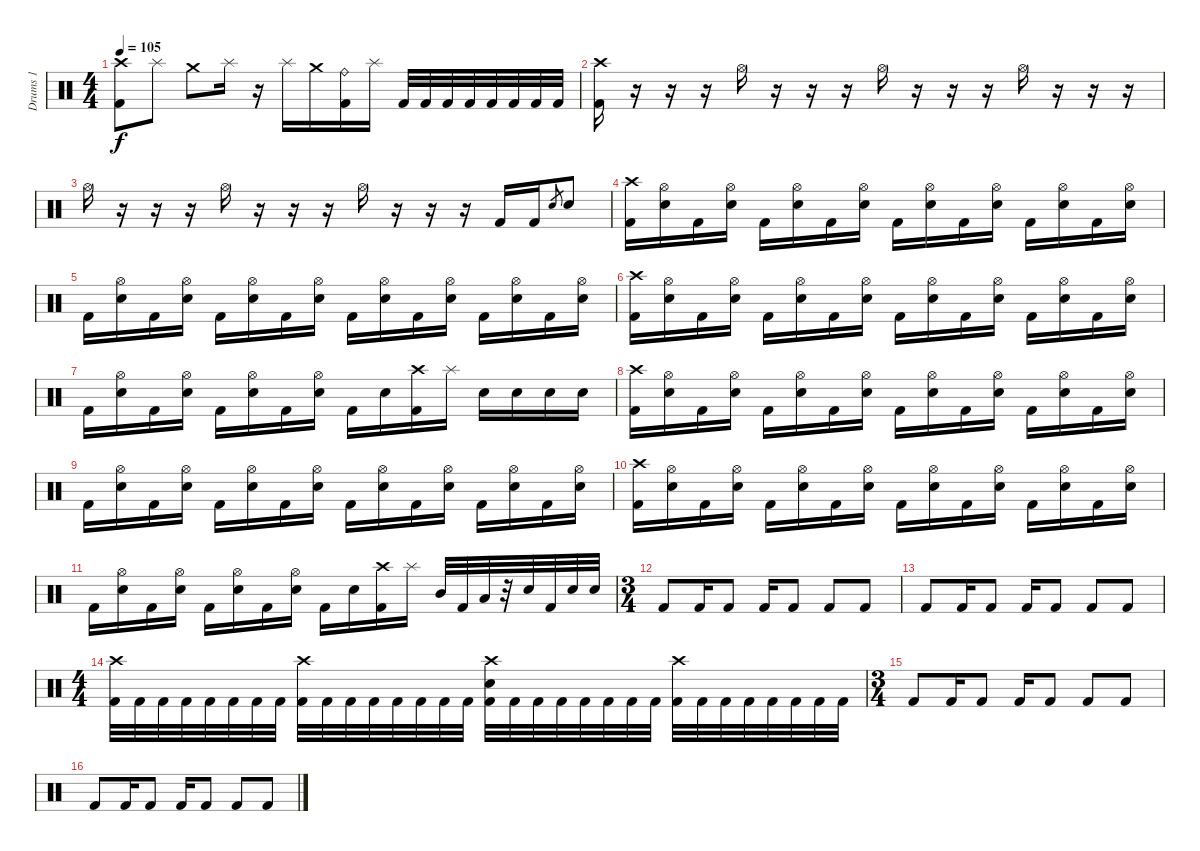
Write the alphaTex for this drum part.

\track ("Drums 1" "Drums 1") {instrument percussion}
\staff
\articulation defaults
\ts (4 4)
\tempo 105
\clef neutral
\ks c
("Crash high (hit)" "Kick (hit) 2").8{dy f} "Splash (hit)".8 "Crash medium (hit)".8 "Splash (hit)".16 r.16 "Splash (hit)".16 "Crash medium (hit)".16 ("Ride (bell)" "Kick (hit) 2").16 "Splash (hit)".16 "Kick (hit) 2".32 "Kick (hit) 2".32 "Kick (hit) 2".32 "Kick (hit) 2".32 "Kick (hit) 2".32 "Kick (hit) 2".32 "Kick (hit) 2".32 "Kick (hit) 2".32 |
("Crash high (hit)" "Kick (hit) 2").16 r.16 r.16 r.16 "Hi-Hat (open)".16 r.16 r.16 r.16 "Hi-Hat (open)".16 r.16 r.16 r.16 "Hi-Hat (open)".16 r.16 r.16 r.16 |
"Hi-Hat (open)".16 r.16 r.16 r.16 "Hi-Hat (open)".16 r.16 r.16 r.16 "Hi-Hat (open)".16 r.16 r.16 r.16 "Kick (hit) 2".16 "Kick (hit) 2".16 "Electric Snare (hit)".8{gr} "Electric Snare (hit)".8 |
("Crash high (hit)" "Kick (hit) 2").16 ("Hi-Hat (open)" "Electric Snare (hit)").16 "Kick (hit) 2".16 ("Hi-Hat (open)" "Electric Snare (hit)").16 "Kick (hit) 2".16 ("Hi-Hat (open)" "Electric Snare (hit)").16 "Kick (hit) 2".16 ("Hi-Hat (open)" "Electric Snare (hit)").16 "Kick (hit) 2".16 ("Hi-Hat (open)" "Electric Snare (hit)").16 "Kick (hit) 2".16 ("Hi-Hat (open)" "Electric Snare (hit)").16 "Kick (hit) 2".16 ("Hi-Hat (open)" "Electric Snare (hit)").16 "Kick (hit) 2".16 ("Hi-Hat (open)" "Electric Snare (hit)").16 |
"Kick (hit) 2".16 ("Hi-Hat (open)" "Electric Snare (hit)").16 "Kick (hit) 2".16 ("Hi-Hat (open)" "Electric Snare (hit)").16 "Kick (hit) 2".16 ("Hi-Hat (open)" "Electric Snare (hit)").16 "Kick (hit) 2".16 ("Hi-Hat (open)" "Electric Snare (hit)").16 "Kick (hit) 2".16 ("Hi-Hat (open)" "Electric Snare (hit)").16 "Kick (hit) 2".16 ("Hi-Hat (open)" "Electric Snare (hit)").16 "Kick (hit) 2".16 ("Hi-Hat (open)" "Electric Snare (hit)").16 "Kick (hit) 2".16 ("Hi-Hat (open)" "Electric Snare (hit)").16 |
("Crash high (hit)" "Kick (hit) 2").16 ("Hi-Hat (open)" "Electric Snare (hit)").16 "Kick (hit) 2".16 ("Hi-Hat (open)" "Electric Snare (hit)").16 "Kick (hit) 2".16 ("Hi-Hat (open)" "Electric Snare (hit)").16 "Kick (hit) 2".16 ("Hi-Hat (open)" "Electric Snare (hit)").16 "Kick (hit) 2".16 ("Hi-Hat (open)" "Electric Snare (hit)").16 "Kick (hit) 2".16 ("Hi-Hat (open)" "Electric Snare (hit)").16 "Kick (hit) 2".16 ("Hi-Hat (open)" "Electric Snare (hit)").16 "Kick (hit) 2".16 ("Hi-Hat (open)" "Electric Snare (hit)").16 |
"Kick (hit) 2".16 ("Hi-Hat (open)" "Electric Snare (hit)").16 "Kick (hit) 2".16 ("Hi-Hat (open)" "Electric Snare (hit)").16 "Kick (hit) 2".16 ("Hi-Hat (open)" "Electric Snare (hit)").16 "Kick (hit) 2".16 ("Hi-Hat (open)" "Electric Snare (hit)").16 "Kick (hit) 2".16 "Electric Snare (hit)".16 ("Crash high (hit)" "Kick (hit) 2").16 "Splash (hit)".16 "Electric Snare (hit)".16 "Electric Snare (hit)".16 "Electric Snare (hit)".16 "Electric Snare (hit)".16 |
("Crash high (hit)" "Kick (hit) 2").16 ("Hi-Hat (open)" "Electric Snare (hit)").16 "Kick (hit) 2".16 ("Hi-Hat (open)" "Electric Snare (hit)").16 "Kick (hit) 2".16 ("Hi-Hat (open)" "Electric Snare (hit)").16 "Kick (hit) 2".16 ("Hi-Hat (open)" "Electric Snare (hit)").16 "Kick (hit) 2".16 ("Hi-Hat (open)" "Electric Snare (hit)").16 "Kick (hit) 2".16 ("Hi-Hat (open)" "Electric Snare (hit)").16 "Kick (hit) 2".16 ("Hi-Hat (open)" "Electric Snare (hit)").16 "Kick (hit) 2".16 ("Hi-Hat (open)" "Electric Snare (hit)").16 |
"Kick (hit) 2".16 ("Hi-Hat (open)" "Electric Snare (hit)").16 "Kick (hit) 2".16 ("Hi-Hat (open)" "Electric Snare (hit)").16 "Kick (hit) 2".16 ("Hi-Hat (open)" "Electric Snare (hit)").16 "Kick (hit) 2".16 ("Hi-Hat (open)" "Electric Snare (hit)").16 "Kick (hit) 2".16 ("Hi-Hat (open)" "Electric Snare (hit)").16 "Kick (hit) 2".16 ("Hi-Hat (open)" "Electric Snare (hit)").16 "Kick (hit) 2".16 ("Hi-Hat (open)" "Electric Snare (hit)").16 "Kick (hit) 2".16 ("Hi-Hat (open)" "Electric Snare (hit)").16 |
("Crash high (hit)" "Kick (hit) 2").16 ("Hi-Hat (open)" "Electric Snare (hit)").16 "Kick (hit) 2".16 ("Hi-Hat (open)" "Electric Snare (hit)").16 "Kick (hit) 2".16 ("Hi-Hat (open)" "Electric Snare (hit)").16 "Kick (hit) 2".16 ("Hi-Hat (open)" "Electric Snare (hit)").16 "Kick (hit) 2".16 ("Hi-Hat (open)" "Electric Snare (hit)").16 "Kick (hit) 2".16 ("Hi-Hat (open)" "Electric Snare (hit)").16 "Kick (hit) 2".16 ("Hi-Hat (open)" "Electric Snare (hit)").16 "Kick (hit) 2".16 ("Hi-Hat (open)" "Electric Snare (hit)").16 |
"Kick (hit) 2".16 ("Hi-Hat (open)" "Electric Snare (hit)").16 "Kick (hit) 2".16 ("Hi-Hat (open)" "Electric Snare (hit)").16 "Kick (hit) 2".16 ("Hi-Hat (open)" "Electric Snare (hit)").16 "Kick (hit) 2".16 ("Hi-Hat (open)" "Electric Snare (hit)").16 "Kick (hit) 2".16 "Electric Snare (hit)".16 ("Crash high (hit)" "Kick (hit) 2").16 "Splash (hit)".16 "Mid Tom (hit)".32 "Kick (hit) 2".32 "Low Tom (hit)".32 r.32 "Electric Snare (hit)".32 "Kick (hit) 2".32 "Electric Snare (hit)".32 "Electric Snare (hit)".32 |
\ts (3 4)
"Kick (hit) 2".8 "Kick (hit) 2".16 "Kick (hit) 2".8 "Kick (hit) 2".16 "Kick (hit) 2".8 "Kick (hit) 2".8 "Kick (hit) 2".8 |
"Kick (hit) 2".8 "Kick (hit) 2".16 "Kick (hit) 2".8 "Kick (hit) 2".16 "Kick (hit) 2".8 "Kick (hit) 2".8 "Kick (hit) 2".8 |
\ts (4 4)
("Crash high (hit)" "Kick (hit) 2").32 "Kick (hit) 2".32 "Kick (hit) 2".32 "Kick (hit) 2".32 "Kick (hit) 2".32 "Kick (hit) 2".32 "Kick (hit) 2".32 "Kick (hit) 2".32 ("Crash high (hit)" "Kick (hit) 2").32 "Kick (hit) 2".32 "Kick (hit) 2".32 "Kick (hit) 2".32 "Kick (hit) 2".32 "Kick (hit) 2".32 "Kick (hit) 2".32 "Kick (hit) 2".32 ("Crash high (hit)" "Electric Snare (hit)" "Kick (hit) 2").32 "Kick (hit) 2".32 "Kick (hit) 2".32 "Kick (hit) 2".32 "Kick (hit) 2".32 "Kick (hit) 2".32 "Kick (hit) 2".32 "Kick (hit) 2".32 ("Crash high (hit)" "Kick (hit) 2").32 "Kick (hit) 2".32 "Kick (hit) 2".32 "Kick (hit) 2".32 "Kick (hit) 2".32 "Kick (hit) 2".32 "Kick (hit) 2".32 "Kick (hit) 2".32 |
\ts (3 4)
"Kick (hit) 2".8 "Kick (hit) 2".16 "Kick (hit) 2".8 "Kick (hit) 2".16 "Kick (hit) 2".8 "Kick (hit) 2".8 "Kick (hit) 2".8 |
"Kick (hit) 2".8 "Kick (hit) 2".16 "Kick (hit) 2".8 "Kick (hit) 2".16 "Kick (hit) 2".8 "Kick (hit) 2".8 "Kick (hit) 2".8
